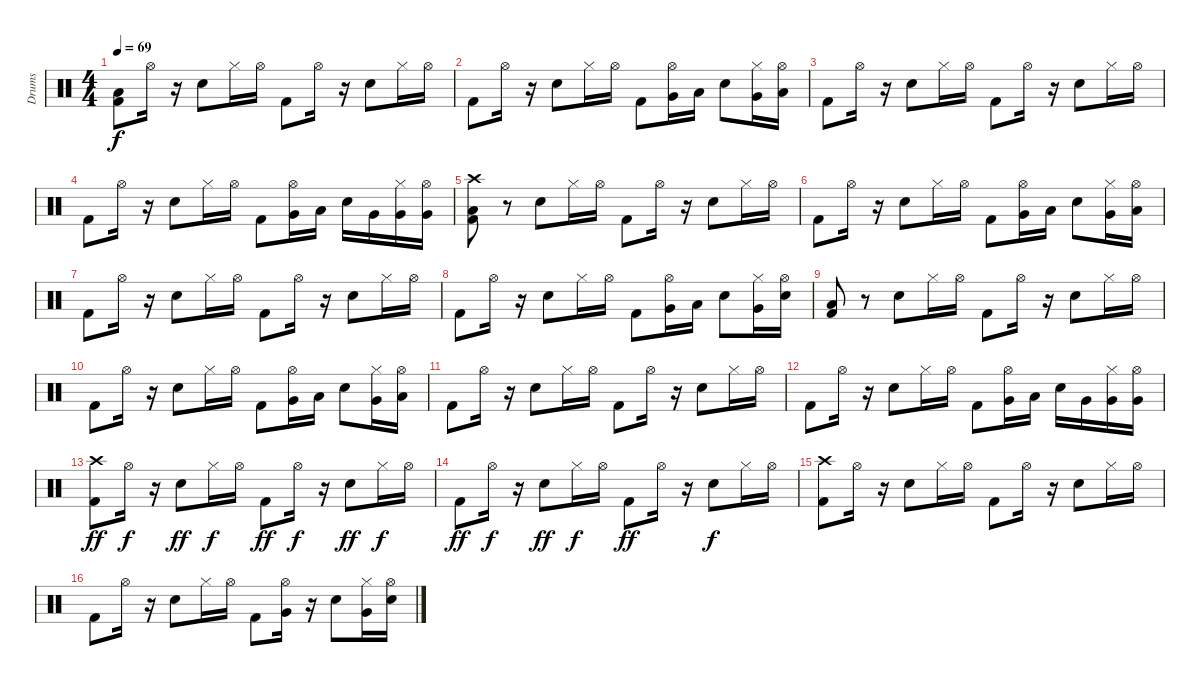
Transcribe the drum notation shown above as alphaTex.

\track ("Drums" "Drums") {instrument percussion}
\staff {score}
\articulation defaults
\ts (4 4)
\tempo 69
\clef neutral
\ks c
("Low Floor Tom (hit)" "Kick (hit) 2").8{dy f} "Hi-Hat (open)".16 r.16 "Snare (hit) 2".8 "Hi-Hat (closed)".16 "Hi-Hat (open)".16 "Kick (hit) 2".8 "Hi-Hat (open)".16 r.16 "Snare (hit) 2".8 "Hi-Hat (closed)".16 "Hi-Hat (open)".16 |
"Kick (hit) 2".8 "Hi-Hat (open)".16 r.16 "Snare (hit) 2".8 "Hi-Hat (closed)".16 "Hi-Hat (open)".16 "Kick (hit) 2".8 ("Very Low Tom (hit)" "Hi-Hat (open)").16 "Low Floor Tom (hit)".16 "Snare (hit) 2".8 ("Very Low Tom (hit)" "Hi-Hat (closed)").16 ("Low Tom (hit)" "Hi-Hat (open)").16 |
"Kick (hit) 2".8 "Hi-Hat (open)".16 r.16 "Snare (hit) 2".8 "Hi-Hat (closed)".16 "Hi-Hat (open)".16 "Kick (hit) 2".8 "Hi-Hat (open)".16 r.16 "Snare (hit) 2".8 "Hi-Hat (closed)".16 "Hi-Hat (open)".16 |
"Kick (hit) 2".8 "Hi-Hat (open)".16 r.16 "Snare (hit) 2".8 "Hi-Hat (closed)".16 "Hi-Hat (open)".16 "Kick (hit) 2".8 ("Very Low Tom (hit)" "Hi-Hat (open)").16 "Low Floor Tom (hit)".16 "Snare (hit) 2".16 "Very Low Tom (hit)".16 ("Very Low Tom (hit)" "Hi-Hat (closed)").16 ("Very Low Tom (hit)" "Hi-Hat (open)").16 |
("Crash high (hit)" "Low Floor Tom (hit)" "Kick (hit) 2").8 r.8 "Snare (hit) 2".8 "Hi-Hat (closed)".16 "Hi-Hat (open)".16 "Kick (hit) 2".8 "Hi-Hat (open)".16 r.16 "Snare (hit) 2".8 "Hi-Hat (closed)".16 "Hi-Hat (open)".16 |
"Kick (hit) 2".8 "Hi-Hat (open)".16 r.16 "Snare (hit) 2".8 "Hi-Hat (closed)".16 "Hi-Hat (open)".16 "Kick (hit) 2".8 ("Very Low Tom (hit)" "Hi-Hat (open)").16 "Low Floor Tom (hit)".16 "Snare (hit) 2".8 ("Very Low Tom (hit)" "Hi-Hat (closed)").16 ("Low Tom (hit)" "Hi-Hat (open)").16 |
"Kick (hit) 2".8 "Hi-Hat (open)".16 r.16 "Snare (hit) 2".8 "Hi-Hat (closed)".16 "Hi-Hat (open)".16 "Kick (hit) 2".8 "Hi-Hat (open)".16 r.16 "Snare (hit) 2".8 "Hi-Hat (closed)".16 "Hi-Hat (open)".16 |
"Kick (hit) 2".8 "Hi-Hat (open)".16 r.16 "Snare (hit) 2".8 "Hi-Hat (closed)".16 "Hi-Hat (open)".16 "Kick (hit) 2".8 ("Very Low Tom (hit)" "Hi-Hat (open)").16 "Low Floor Tom (hit)".16 "Snare (hit) 2".8 ("Very Low Tom (hit)" "Hi-Hat (closed)").16 ("Snare (hit) 2" "Hi-Hat (open)").16 |
("Low Floor Tom (hit)" "Kick (hit) 2").8 r.8 "Snare (hit) 2".8 "Hi-Hat (closed)".16 "Hi-Hat (open)".16 "Kick (hit) 2".8 "Hi-Hat (open)".16 r.16 "Snare (hit) 2".8 "Hi-Hat (closed)".16 "Hi-Hat (open)".16 |
"Kick (hit) 2".8 "Hi-Hat (open)".16 r.16 "Snare (hit) 2".8 "Hi-Hat (closed)".16 "Hi-Hat (open)".16 "Kick (hit) 2".8 ("Very Low Tom (hit)" "Hi-Hat (open)").16 "Low Floor Tom (hit)".16 "Snare (hit) 2".8 ("Very Low Tom (hit)" "Hi-Hat (closed)").16 ("Low Tom (hit)" "Hi-Hat (open)").16 |
"Kick (hit) 2".8 "Hi-Hat (open)".16 r.16 "Snare (hit) 2".8 "Hi-Hat (closed)".16 "Hi-Hat (open)".16 "Kick (hit) 2".8 "Hi-Hat (open)".16 r.16 "Snare (hit) 2".8 "Hi-Hat (closed)".16 "Hi-Hat (open)".16 |
"Kick (hit) 2".8 "Hi-Hat (open)".16 r.16 "Snare (hit) 2".8 "Hi-Hat (closed)".16 "Hi-Hat (open)".16 "Kick (hit) 2".8 ("Very Low Tom (hit)" "Hi-Hat (open)").16 "Low Floor Tom (hit)".16 "Snare (hit) 2".16 "Very Low Tom (hit)".16 ("Very Low Tom (hit)" "Hi-Hat (closed)").16 ("Very Low Tom (hit)" "Hi-Hat (open)").16 |
("Crash high (hit)" "Kick (hit) 2").8{dy ff} "Hi-Hat (open)".16{dy f} r.16 "Snare (hit) 2".8{dy ff} "Hi-Hat (closed)".16{dy f} "Hi-Hat (open)".16 "Kick (hit) 2".8{dy ff} "Hi-Hat (open)".16{dy f} r.16 "Snare (hit) 2".8{dy ff} "Hi-Hat (closed)".16{dy f} "Hi-Hat (open)".16 |
"Kick (hit) 2".8{dy ff} "Hi-Hat (open)".16{dy f} r.16 "Snare (hit) 2".8{dy ff} "Hi-Hat (closed)".16{dy f} "Hi-Hat (open)".16 "Kick (hit) 2".8{dy ff} "Hi-Hat (open)".16 r.16 "Snare (hit) 2".8{dy f} "Hi-Hat (closed)".16 "Hi-Hat (open)".16 |
("Crash high (hit)" "Kick (hit) 2").8 "Hi-Hat (open)".16 r.16 "Snare (hit) 2".8 "Hi-Hat (closed)".16 "Hi-Hat (open)".16 "Kick (hit) 2".8 "Hi-Hat (open)".16 r.16 "Snare (hit) 2".8 "Hi-Hat (closed)".16 "Hi-Hat (open)".16 |
"Kick (hit) 2".8 "Hi-Hat (open)".16 r.16 "Snare (hit) 2".8 "Hi-Hat (closed)".16 "Hi-Hat (open)".16 "Kick (hit) 2".8 ("Very Low Tom (hit)" "Hi-Hat (open)").16 r.16 "Snare (hit) 2".8 ("Very Low Tom (hit)" "Hi-Hat (closed)").16 ("Snare (hit) 2" "Hi-Hat (open)").16
